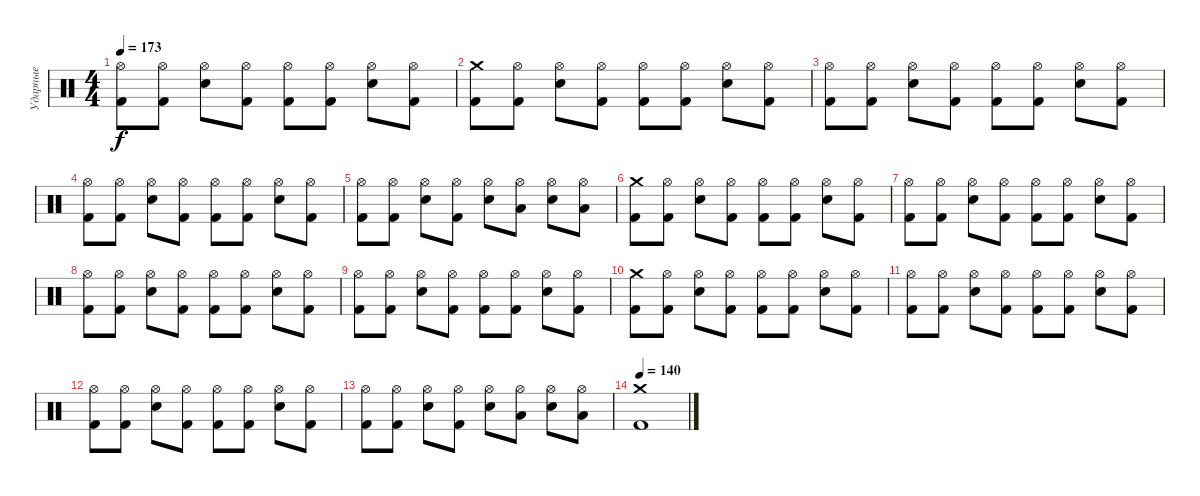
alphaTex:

\track ("Ударные" "Ударные") {instrument percussion}
\staff {score}
\articulation defaults
\ts (4 4)
\tempo 173
\clef neutral
\ks c
("Hi-Hat (open)" "Kick (hit) 2").8{dy f} ("Hi-Hat (open)" "Kick (hit) 2").8 ("Hi-Hat (open)" "Electric Snare (hit)").8 ("Hi-Hat (open)" "Kick (hit) 2").8 ("Hi-Hat (open)" "Kick (hit) 2").8 ("Hi-Hat (open)" "Kick (hit) 2").8 ("Hi-Hat (open)" "Electric Snare (hit)").8 ("Hi-Hat (open)" "Kick (hit) 2").8 |
("Crash medium (hit)" "Kick (hit) 2").8 ("Hi-Hat (open)" "Kick (hit) 2").8 ("Hi-Hat (open)" "Electric Snare (hit)").8 ("Hi-Hat (open)" "Kick (hit) 2").8 ("Hi-Hat (open)" "Kick (hit) 2").8 ("Hi-Hat (open)" "Kick (hit) 2").8 ("Hi-Hat (open)" "Electric Snare (hit)").8 ("Hi-Hat (open)" "Kick (hit) 2").8 |
("Hi-Hat (open)" "Kick (hit) 2").8 ("Hi-Hat (open)" "Kick (hit) 2").8 ("Hi-Hat (open)" "Electric Snare (hit)").8 ("Hi-Hat (open)" "Kick (hit) 2").8 ("Hi-Hat (open)" "Kick (hit) 2").8 ("Hi-Hat (open)" "Kick (hit) 2").8 ("Hi-Hat (open)" "Electric Snare (hit)").8 ("Hi-Hat (open)" "Kick (hit) 2").8 |
("Hi-Hat (open)" "Kick (hit) 2").8 ("Hi-Hat (open)" "Kick (hit) 2").8 ("Hi-Hat (open)" "Electric Snare (hit)").8 ("Hi-Hat (open)" "Kick (hit) 2").8 ("Hi-Hat (open)" "Kick (hit) 2").8 ("Hi-Hat (open)" "Kick (hit) 2").8 ("Hi-Hat (open)" "Electric Snare (hit)").8 ("Hi-Hat (open)" "Kick (hit) 2").8 |
("Hi-Hat (open)" "Kick (hit) 2").8 ("Hi-Hat (open)" "Kick (hit) 2").8 ("Hi-Hat (open)" "Electric Snare (hit)").8 ("Hi-Hat (open)" "Kick (hit) 2").8 ("Hi-Hat (open)" "Electric Snare (hit)").8 ("Hi-Hat (open)" "Low Tom (hit)").8 ("Hi-Hat (open)" "Electric Snare (hit)").8 ("Hi-Hat (open)" "Low Tom (hit)").8 |
("Crash medium (hit)" "Kick (hit) 2").8 ("Hi-Hat (open)" "Kick (hit) 2").8 ("Hi-Hat (open)" "Electric Snare (hit)").8 ("Hi-Hat (open)" "Kick (hit) 2").8 ("Hi-Hat (open)" "Kick (hit) 2").8 ("Hi-Hat (open)" "Kick (hit) 2").8 ("Hi-Hat (open)" "Electric Snare (hit)").8 ("Hi-Hat (open)" "Kick (hit) 2").8 |
("Hi-Hat (open)" "Kick (hit) 2").8 ("Hi-Hat (open)" "Kick (hit) 2").8 ("Hi-Hat (open)" "Electric Snare (hit)").8 ("Hi-Hat (open)" "Kick (hit) 2").8 ("Hi-Hat (open)" "Kick (hit) 2").8 ("Hi-Hat (open)" "Kick (hit) 2").8 ("Hi-Hat (open)" "Electric Snare (hit)").8 ("Hi-Hat (open)" "Kick (hit) 2").8 |
("Hi-Hat (open)" "Kick (hit) 2").8 ("Hi-Hat (open)" "Kick (hit) 2").8 ("Hi-Hat (open)" "Electric Snare (hit)").8 ("Hi-Hat (open)" "Kick (hit) 2").8 ("Hi-Hat (open)" "Kick (hit) 2").8 ("Hi-Hat (open)" "Kick (hit) 2").8 ("Hi-Hat (open)" "Electric Snare (hit)").8 ("Hi-Hat (open)" "Kick (hit) 2").8 |
("Hi-Hat (open)" "Kick (hit) 2").8 ("Hi-Hat (open)" "Kick (hit) 2").8 ("Hi-Hat (open)" "Electric Snare (hit)").8 ("Hi-Hat (open)" "Kick (hit) 2").8 ("Hi-Hat (open)" "Kick (hit) 2").8 ("Hi-Hat (open)" "Kick (hit) 2").8 ("Hi-Hat (open)" "Electric Snare (hit)").8 ("Hi-Hat (open)" "Kick (hit) 2").8 |
("Crash medium (hit)" "Kick (hit) 2").8 ("Hi-Hat (open)" "Kick (hit) 2").8 ("Hi-Hat (open)" "Electric Snare (hit)").8 ("Hi-Hat (open)" "Kick (hit) 2").8 ("Hi-Hat (open)" "Kick (hit) 2").8 ("Hi-Hat (open)" "Kick (hit) 2").8 ("Hi-Hat (open)" "Electric Snare (hit)").8 ("Hi-Hat (open)" "Kick (hit) 2").8 |
("Hi-Hat (open)" "Kick (hit) 2").8 ("Hi-Hat (open)" "Kick (hit) 2").8 ("Hi-Hat (open)" "Electric Snare (hit)").8 ("Hi-Hat (open)" "Kick (hit) 2").8 ("Hi-Hat (open)" "Kick (hit) 2").8 ("Hi-Hat (open)" "Kick (hit) 2").8 ("Hi-Hat (open)" "Electric Snare (hit)").8 ("Hi-Hat (open)" "Kick (hit) 2").8 |
("Hi-Hat (open)" "Kick (hit) 2").8 ("Hi-Hat (open)" "Kick (hit) 2").8 ("Hi-Hat (open)" "Electric Snare (hit)").8 ("Hi-Hat (open)" "Kick (hit) 2").8 ("Hi-Hat (open)" "Kick (hit) 2").8 ("Hi-Hat (open)" "Kick (hit) 2").8 ("Hi-Hat (open)" "Electric Snare (hit)").8 ("Hi-Hat (open)" "Kick (hit) 2").8 |
("Hi-Hat (open)" "Kick (hit) 2").8 ("Hi-Hat (open)" "Kick (hit) 2").8 ("Hi-Hat (open)" "Electric Snare (hit)").8 ("Hi-Hat (open)" "Kick (hit) 2").8 ("Hi-Hat (open)" "Electric Snare (hit)").8 ("Hi-Hat (open)" "Low Tom (hit)").8 ("Hi-Hat (open)" "Electric Snare (hit)").8 ("Hi-Hat (open)" "Low Tom (hit)").8 |
\tempo 140
("Crash medium (hit)" "Kick (hit) 2").1
